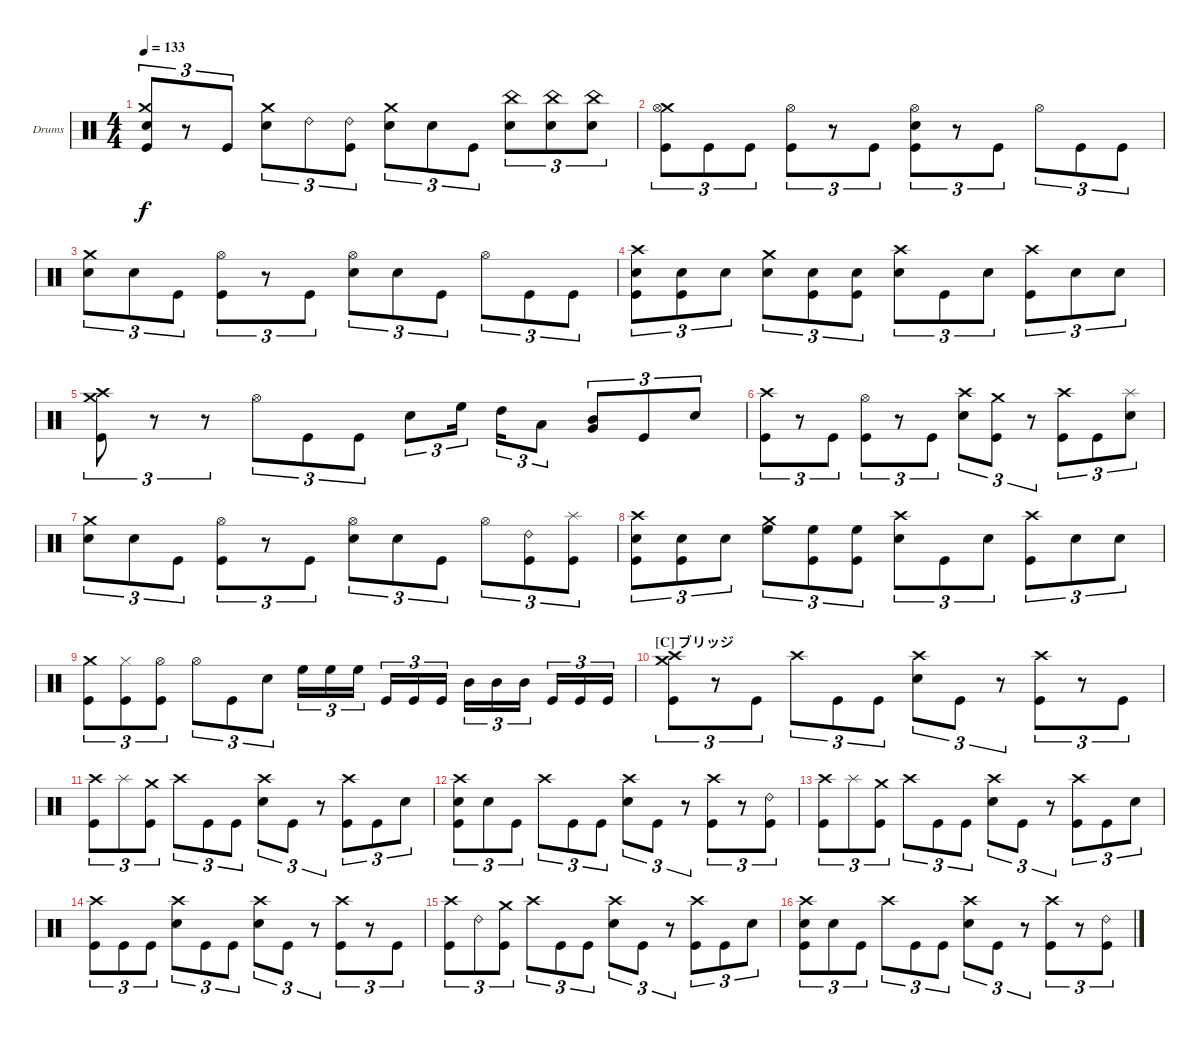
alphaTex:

\bracketExtendMode groupsimilarinstruments
\firstSystemTrackNameOrientation horizontal
\otherSystemsTrackNameOrientation horizontal
\track ("Ben Kazenoff" "Drums") {instrument percussion}
\staff {score}
\articulation defaults
\ts (4 4)
\tempo 133
\clef neutral
\ks c
("Kick (hit)" "Crash medium (hit)" "Snare (hit) 2").8{tu (3 2) dy f} r.8{tu (3 2)} "Kick (hit)".8{tu (3 2)} ("Crash medium (hit)" "Snare (hit) 2").8{tu (3 2)} "Ride (bell) 2".8{tu (3 2)} ("Ride (bell) 2" "Kick (hit)").8{tu (3 2)} ("Crash medium (hit)" "Snare (hit) 2").8{tu (3 2)} "Snare (hit) 2".8{tu (3 2)} "Kick (hit)".8{tu (3 2)} ("China (hit)" "Snare (hit) 2").8{tu (3 2)} ("China (hit)" "Snare (hit) 2").8{tu (3 2)} ("China (hit)" "Snare (hit) 2").8{tu (3 2)} |
("Kick (hit)" "Crash medium (hit)" "Hi-Hat (open)").8{tu (3 2)} "Kick (hit)".8{tu (3 2)} "Kick (hit)".8{tu (3 2)} ("Kick (hit)" "Hi-Hat (open)").8{tu (3 2)} r.8{tu (3 2)} "Kick (hit)".8{tu (3 2)} ("Kick (hit)" "Snare (hit) 2" "Hi-Hat (open)").8{tu (3 2)} r.8{tu (3 2)} "Kick (hit)".8{tu (3 2)} "Hi-Hat (open)".8{tu (3 2)} "Kick (hit)".8{tu (3 2)} "Kick (hit)".8{tu (3 2)} |
("Crash medium (hit)" "Snare (hit) 2").8{tu (3 2)} "Snare (hit) 2".8{tu (3 2)} "Kick (hit)".8{tu (3 2)} ("Kick (hit)" "Hi-Hat (open)").8{tu (3 2)} r.8{tu (3 2)} "Kick (hit)".8{tu (3 2)} ("Snare (hit) 2" "Hi-Hat (open)").8{tu (3 2)} "Snare (hit) 2".8{tu (3 2)} "Kick (hit)".8{tu (3 2)} "Hi-Hat (open)".8{tu (3 2)} "Kick (hit)".8{tu (3 2)} "Kick (hit)".8{tu (3 2)} |
("Crash high (hit)" "Snare (hit) 2" "Kick (hit)").8{tu (3 2)} ("Snare (hit) 2" "Kick (hit)").8{tu (3 2)} "Snare (hit) 2".8{tu (3 2)} ("Crash medium (hit)" "Snare (hit) 2").8{tu (3 2)} ("Snare (hit) 2" "Kick (hit)").8{tu (3 2)} ("Snare (hit) 2" "Kick (hit)").8{tu (3 2)} ("Crash high (hit)" "Snare (hit) 2").8{tu (3 2)} "Kick (hit)".8{tu (3 2)} "Snare (hit) 2".8{tu (3 2)} ("Crash high (hit)" "Kick (hit)").8{tu (3 2)} "Snare (hit) 2".8{tu (3 2)} "Snare (hit) 2".8{tu (3 2)} |
("Kick (hit)" "Crash medium (hit)" "Crash high (hit)").8{tu (3 2)} r.8{tu (3 2)} r.8{tu (3 2)} "Hi-Hat (open)".8{tu (3 2)} "Kick (hit)".8{tu (3 2)} "Kick (hit)".8{tu (3 2)} "Snare (hit) 2".8{tu (3 2)} "High Floor Tom (hit)".16{tu (3 2)} "High Tom (hit)".16{tu (3 2)} "Low Tom (hit)".8{tu (3 2)} ("Very Low Tom (hit)" "Mid Tom (hit)").8{tu (3 2)} "Kick (hit)".8{tu (3 2)} "Snare (hit) 2".8{tu (3 2)} |
("Crash high (hit)" "Kick (hit)").8{tu (3 2)} r.8{tu (3 2)} "Kick (hit)".8{tu (3 2)} ("Hi-Hat (open)" "Kick (hit)").8{tu (3 2)} r.8{tu (3 2)} "Kick (hit)".8{tu (3 2)} ("Crash high (hit)" "Snare (hit) 2").8{tu (3 2)} ("Crash medium (hit)" "Kick (hit)").8{tu (3 2)} r.8{tu (3 2)} ("Crash high (hit)" "Kick (hit)").8{tu (3 2)} "Kick (hit)".8{tu (3 2)} ("Splash (hit)" "Snare (hit) 2").8{tu (3 2)} |
("Crash medium (hit)" "Snare (hit) 2").8{tu (3 2)} "Snare (hit) 2".8{tu (3 2)} "Kick (hit)".8{tu (3 2)} ("Kick (hit)" "Hi-Hat (open)").8{tu (3 2)} r.8{tu (3 2)} "Kick (hit)".8{tu (3 2)} ("Snare (hit) 2" "Hi-Hat (open)").8{tu (3 2)} "Snare (hit) 2".8{tu (3 2)} "Kick (hit)".8{tu (3 2)} "Hi-Hat (open)".8{tu (3 2)} ("Kick (hit)" "Ride (bell) 2").8{tu (3 2)} ("Kick (hit)" "Splash (hit)").8{tu (3 2)} |
("Crash high (hit)" "Snare (hit) 2" "Kick (hit)").8{tu (3 2)} ("Snare (hit) 2" "Kick (hit)").8{tu (3 2)} "Snare (hit) 2".8{tu (3 2)} ("Crash medium (hit)" "High Floor Tom (hit)").8{tu (3 2)} ("High Floor Tom (hit)" "Kick (hit)").8{tu (3 2)} ("High Floor Tom (hit)" "Kick (hit)").8{tu (3 2)} ("Crash high (hit)" "Snare (hit) 2").8{tu (3 2)} "Kick (hit)".8{tu (3 2)} "Snare (hit) 2".8{tu (3 2)} ("Crash high (hit)" "Kick (hit)").8{tu (3 2)} "Snare (hit) 2".8{tu (3 2)} "Snare (hit) 2".8{tu (3 2)} |
("Crash medium (hit)" "Kick (hit)").8{tu (3 2)} ("Kick (hit)" "Hi-Hat (closed)").8{tu (3 2)} ("Kick (hit)" "Hi-Hat (open)").8{tu (3 2)} "Hi-Hat (open)".8{tu (3 2)} "Kick (hit)".8{tu (3 2)} "Snare (hit) 2".8{tu (3 2)} "High Floor Tom (hit)".16{tu (3 2)} "High Floor Tom (hit)".16{tu (3 2)} "High Floor Tom (hit)".16{tu (3 2)} "Kick (hit)".16{tu (3 2)} "Kick (hit)".16{tu (3 2)} "Kick (hit)".16{tu (3 2)} "Mid Tom (hit)".16{tu (3 2)} "Mid Tom (hit)".16{tu (3 2)} "Mid Tom (hit)".16{tu (3 2)} "Kick (hit)".16{tu (3 2)} "Kick (hit)".16{tu (3 2)} "Kick (hit)".16{tu (3 2)} |
\section ("C" "ブリッジ")
("Crash high (hit)" "Kick (hit)" "Crash medium (hit)").8{tu (3 2)} r.8{tu (3 2)} "Kick (hit)".8{tu (3 2)} "Crash high (hit)".8{tu (3 2)} "Kick (hit)".8{tu (3 2)} "Kick (hit)".8{tu (3 2)} ("Crash high (hit)" "Snare (hit) 2").8{tu (3 2)} "Kick (hit)".8{tu (3 2)} r.8{tu (3 2)} ("Crash high (hit)" "Kick (hit)").8{tu (3 2)} r.8{tu (3 2)} "Kick (hit)".8{tu (3 2)} |
("Crash high (hit)" "Kick (hit)").8{tu (3 2)} "Splash (hit)".8{tu (3 2)} ("Crash medium (hit)" "Kick (hit)").8{tu (3 2)} "Crash high (hit)".8{tu (3 2)} "Kick (hit)".8{tu (3 2)} "Kick (hit)".8{tu (3 2)} ("Crash high (hit)" "Snare (hit) 2").8{tu (3 2)} "Kick (hit)".8{tu (3 2)} r.8{tu (3 2)} ("Crash high (hit)" "Kick (hit)").8{tu (3 2)} "Kick (hit)".8{tu (3 2)} "Snare (hit) 2".8{tu (3 2)} |
("Crash high (hit)" "Kick (hit)" "Snare (hit) 2").8{tu (3 2)} "Snare (hit) 2".8{tu (3 2)} "Kick (hit)".8{tu (3 2)} "Crash high (hit)".8{tu (3 2)} "Kick (hit)".8{tu (3 2)} "Kick (hit)".8{tu (3 2)} ("Crash high (hit)" "Snare (hit) 2").8{tu (3 2)} "Kick (hit)".8{tu (3 2)} r.8{tu (3 2)} ("Crash high (hit)" "Kick (hit)").8{tu (3 2)} r.8{tu (3 2)} ("Kick (hit)" "Ride (bell) 2").8{tu (3 2)} |
("Crash high (hit)" "Kick (hit)").8{tu (3 2)} "Splash (hit)".8{tu (3 2)} ("Crash medium (hit)" "Kick (hit)").8{tu (3 2)} "Crash high (hit)".8{tu (3 2)} "Kick (hit)".8{tu (3 2)} "Kick (hit)".8{tu (3 2)} ("Crash high (hit)" "Snare (hit) 2").8{tu (3 2)} "Kick (hit)".8{tu (3 2)} r.8{tu (3 2)} ("Crash high (hit)" "Kick (hit)").8{tu (3 2)} "Kick (hit)".8{tu (3 2)} "Snare (hit) 2".8{tu (3 2)} |
("Crash high (hit)" "Kick (hit)").8{tu (3 2)} "Kick (hit)".8{tu (3 2)} "Kick (hit)".8{tu (3 2)} ("Crash high (hit)" "Snare (hit) 2").8{tu (3 2)} "Kick (hit)".8{tu (3 2)} "Kick (hit)".8{tu (3 2)} ("Crash high (hit)" "Snare (hit) 2").8{tu (3 2)} "Kick (hit)".8{tu (3 2)} r.8{tu (3 2)} ("Crash high (hit)" "Kick (hit)").8{tu (3 2)} r.8{tu (3 2)} "Kick (hit)".8{tu (3 2)} |
("Crash high (hit)" "Kick (hit)").8{tu (3 2)} "Ride (bell) 2".8{tu (3 2)} ("Crash medium (hit)" "Kick (hit)").8{tu (3 2)} "Crash high (hit)".8{tu (3 2)} "Kick (hit)".8{tu (3 2)} "Kick (hit)".8{tu (3 2)} ("Crash high (hit)" "Snare (hit) 2").8{tu (3 2)} "Kick (hit)".8{tu (3 2)} r.8{tu (3 2)} ("Crash high (hit)" "Kick (hit)").8{tu (3 2)} "Kick (hit)".8{tu (3 2)} "Snare (hit) 2".8{tu (3 2)} |
("Crash high (hit)" "Kick (hit)" "Snare (hit) 2").8{tu (3 2)} "Snare (hit) 2".8{tu (3 2)} "Kick (hit)".8{tu (3 2)} "Crash high (hit)".8{tu (3 2)} "Kick (hit)".8{tu (3 2)} "Kick (hit)".8{tu (3 2)} ("Crash high (hit)" "Snare (hit) 2").8{tu (3 2)} "Kick (hit)".8{tu (3 2)} r.8{tu (3 2)} ("Crash high (hit)" "Kick (hit)").8{tu (3 2)} r.8{tu (3 2)} ("Kick (hit)" "Ride (bell) 2").8{tu (3 2)}
